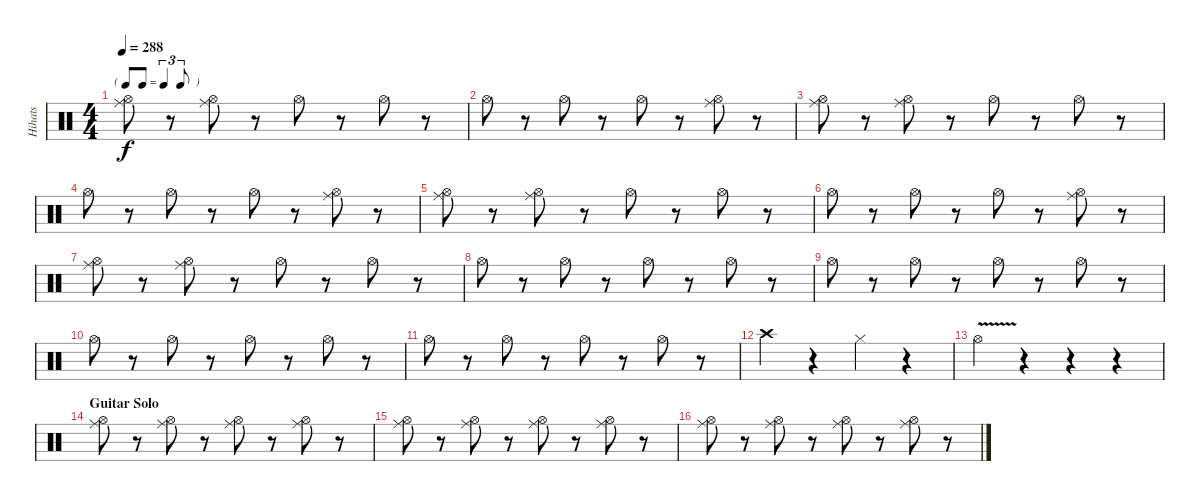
\track ("Hihats" "Hihats") {instrument percussion}
\staff {score}
\articulation defaults
\ts (4 4)
\tf triplet8th
\tempo 288
\clef neutral
\ks c
("Hi-Hat (open)" "Ride (middle)").8{dy f} r.8 ("Hi-Hat (open)" "Ride (middle)").8 r.8 "Hi-Hat (open)".8 r.8 "Hi-Hat (open)".8 r.8 |
"Hi-Hat (open)".8 r.8 "Hi-Hat (open)".8 r.8 "Hi-Hat (open)".8 r.8 ("Hi-Hat (open)" "Ride (middle)").8 r.8 |
("Hi-Hat (open)" "Ride (middle)").8 r.8 ("Hi-Hat (open)" "Ride (middle)").8 r.8 "Hi-Hat (open)".8 r.8 "Hi-Hat (open)".8 r.8 |
"Hi-Hat (open)".8 r.8 "Hi-Hat (open)".8 r.8 "Hi-Hat (open)".8 r.8 ("Hi-Hat (open)" "Ride (middle)").8 r.8 |
("Hi-Hat (open)" "Ride (middle)").8 r.8 ("Hi-Hat (open)" "Ride (middle)").8 r.8 "Hi-Hat (open)".8 r.8 "Hi-Hat (open)".8 r.8 |
"Hi-Hat (open)".8 r.8 "Hi-Hat (open)".8 r.8 "Hi-Hat (open)".8 r.8 ("Hi-Hat (open)" "Ride (middle)").8 r.8 |
("Hi-Hat (open)" "Ride (middle)").8 r.8 ("Hi-Hat (open)" "Ride (middle)").8 r.8 "Hi-Hat (open)".8 r.8 "Hi-Hat (open)".8 r.8 |
"Hi-Hat (open)".8 r.8 "Hi-Hat (open)".8 r.8 "Hi-Hat (open)".8 r.8 "Hi-Hat (open)".8 r.8 |
"Hi-Hat (open)".8 r.8 "Hi-Hat (open)".8 r.8 "Hi-Hat (open)".8 r.8 "Hi-Hat (open)".8 r.8 |
"Hi-Hat (open)".8 r.8 "Hi-Hat (open)".8 r.8 "Hi-Hat (open)".8 r.8 "Hi-Hat (open)".8 r.8 |
"Hi-Hat (open)".8 r.8 "Hi-Hat (open)".8 r.8 "Hi-Hat (open)".8 r.8 "Hi-Hat (open)".8 r.8 |
"Crash high (hit)".4 r.4 "Hi-Hat (closed)".4 r.4 |
"Hi-Hat (open)"{v}.4 r.4 r.4 r.4 |
\section ("" "Guitar Solo")
("Hi-Hat (open)" "Ride (middle)").8 r.8 ("Hi-Hat (open)" "Ride (middle)").8 r.8 ("Hi-Hat (open)" "Ride (middle)").8 r.8 ("Hi-Hat (open)" "Ride (middle)").8 r.8 |
("Hi-Hat (open)" "Ride (middle)").8 r.8 ("Hi-Hat (open)" "Ride (middle)").8 r.8 ("Hi-Hat (open)" "Ride (middle)").8 r.8 ("Hi-Hat (open)" "Ride (middle)").8 r.8 |
("Hi-Hat (open)" "Ride (middle)").8 r.8 ("Hi-Hat (open)" "Ride (middle)").8 r.8 ("Hi-Hat (open)" "Ride (middle)").8 r.8 ("Hi-Hat (open)" "Ride (middle)").8 r.8
